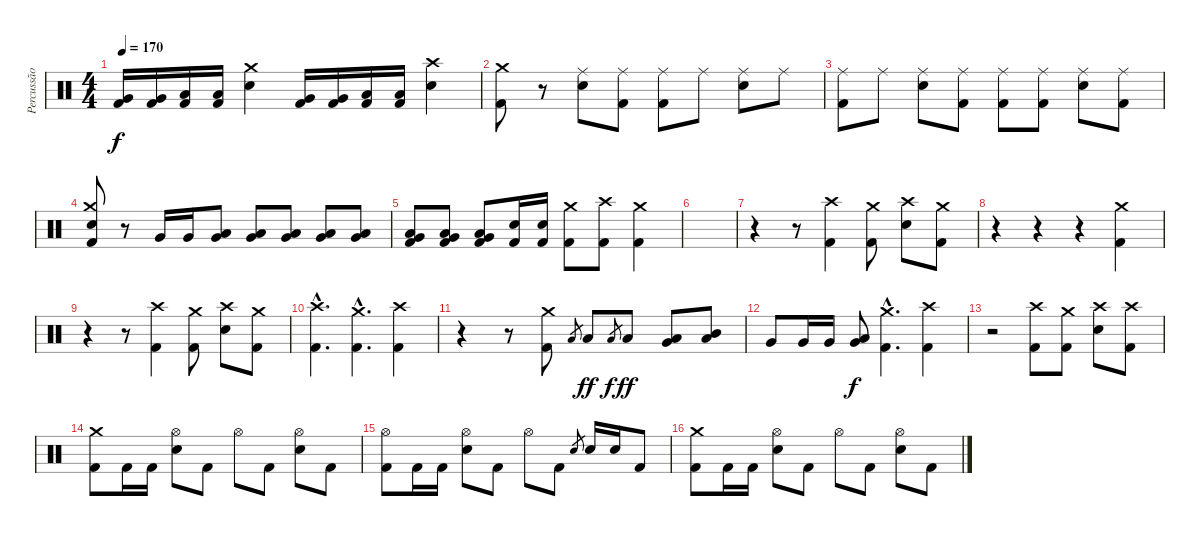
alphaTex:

\track ("Percussão" "Percussão") {instrument percussion}
\staff {score}
\articulation defaults
\ts (4 4)
\tempo 170
\clef neutral
\ks c
("Very Low Tom (hit)" "Kick (hit) 2").16{dy f} ("Very Low Tom (hit)" "Kick (hit) 2").16 ("Low Floor Tom (hit)" "Kick (hit) 2").16 ("Low Floor Tom (hit)" "Kick (hit) 2").16 ("Crash medium (hit)" "Electric Snare (hit)").4 ("Very Low Tom (hit)" "Kick (hit) 2").16 ("Very Low Tom (hit)" "Kick (hit) 2").16 ("Low Floor Tom (hit)" "Kick (hit) 2").16 ("Low Floor Tom (hit)" "Kick (hit) 2").16 ("Crash high (hit)" "Electric Snare (hit)").4 |
("Crash medium (hit)" "Kick (hit) 2").8 r.8 ("Ride (middle)" "Electric Snare (hit)").8 ("Ride (middle)" "Kick (hit) 2").8 ("Ride (middle)" "Kick (hit) 2").8 "Ride (middle)".8 ("Ride (middle)" "Electric Snare (hit)").8 "Ride (middle)".8 |
("Ride (middle)" "Kick (hit) 2").8 "Ride (middle)".8 ("Ride (middle)" "Electric Snare (hit)").8 ("Ride (middle)" "Kick (hit) 2").8 ("Ride (middle)" "Kick (hit) 2").8 ("Ride (middle)" "Kick (hit) 2").8 ("Ride (middle)" "Electric Snare (hit)").8 ("Ride (middle)" "Kick (hit) 2").8 |
("Crash medium (hit)" "Electric Snare (hit)" "Kick (hit) 2").8 r.8 "Very Low Tom (hit)".16 "Very Low Tom (hit)".16 ("Very Low Tom (hit)" "Low Floor Tom (hit)").8 ("Very Low Tom (hit)" "Low Floor Tom (hit)").8 ("Very Low Tom (hit)" "Low Floor Tom (hit)").8 ("Very Low Tom (hit)" "Low Floor Tom (hit)").8 ("Very Low Tom (hit)" "Low Floor Tom (hit)").8 |
("Very Low Tom (hit)" "Low Floor Tom (hit)" "Kick (hit) 2").8 ("Very Low Tom (hit)" "Low Floor Tom (hit)" "Kick (hit) 2").8 ("Very Low Tom (hit)" "Low Floor Tom (hit)" "Kick (hit) 2").8 ("Electric Snare (hit)" "Kick (hit) 2").16 ("Electric Snare (hit)" "Kick (hit) 2").16 ("Crash medium (hit)" "Kick (hit) 2").8 ("Crash high (hit)" "Kick (hit) 2").8 ("Crash medium (hit)" "Kick (hit) 2").4 |
|
r.4 r.8 ("Crash high (hit)" "Kick (hit) 2").4 ("Crash medium (hit)" "Kick (hit) 2").8 ("Crash high (hit)" "Electric Snare (hit)").8 ("Crash medium (hit)" "Kick (hit) 2").8 |
r.4 r.4 r.4 ("Crash medium (hit)" "Kick (hit) 2").4 |
r.4 r.8 ("Crash high (hit)" "Kick (hit) 2").4 ("Crash medium (hit)" "Kick (hit) 2").8 ("Crash high (hit)" "Electric Snare (hit)").8 ("Crash medium (hit)" "Kick (hit) 2").8 |
("Crash high (hit)"{hac} "Kick (hit) 2"{hac}).4{d} ("Crash medium (hit)"{hac} "Kick (hit) 2"{hac}).4{d} ("Crash high (hit)" "Kick (hit) 2").4 |
r.4 r.8 ("Crash medium (hit)" "Kick (hit) 2").8 "Low Tom (hit)".8{gr} "Low Tom (hit)".8{dy ff} "Low Tom (hit)".8{gr dy f} "Low Tom (hit)".8{dy ff} ("Low Tom (hit)" "Very Low Tom (hit)").8 ("Mid Tom (hit)" "Low Tom (hit)").8 |
"Very Low Tom (hit)".8 "Very Low Tom (hit)".16 "Very Low Tom (hit)".16 ("Very Low Tom (hit)" "Low Floor Tom (hit)").8{dy f} ("Crash medium (hit)"{hac} "Kick (hit) 2"{hac}).4{d} ("Crash high (hit)" "Kick (hit) 2").4 |
r.2 ("Crash high (hit)" "Kick (hit) 2").8 ("Crash medium (hit)" "Kick (hit) 2").8 ("Crash high (hit)" "Electric Snare (hit)").8 ("Crash high (hit)" "Kick (hit) 2").8 |
("Crash medium (hit)" "Kick (hit) 2").8 "Kick (hit) 2".16 "Kick (hit) 2".16 ("Hi-Hat (open)" "Electric Snare (hit)").8 "Kick (hit) 2".8 "Hi-Hat (open)".8 "Kick (hit) 2".8 ("Hi-Hat (open)" "Electric Snare (hit)").8 "Kick (hit) 2".8 |
("Hi-Hat (open)" "Kick (hit) 2").8 "Kick (hit) 2".16 "Kick (hit) 2".16 ("Hi-Hat (open)" "Electric Snare (hit)").8 "Kick (hit) 2".8 "Hi-Hat (open)".8 "Kick (hit) 2".8 "Electric Snare (hit)".8{gr} "Electric Snare (hit)".16 "Electric Snare (hit)".16 "Kick (hit) 2".8 |
("Crash medium (hit)" "Kick (hit) 2").8 "Kick (hit) 2".16 "Kick (hit) 2".16 ("Hi-Hat (open)" "Electric Snare (hit)").8 "Kick (hit) 2".8 "Hi-Hat (open)".8 "Kick (hit) 2".8 ("Hi-Hat (open)" "Electric Snare (hit)").8 "Kick (hit) 2".8
